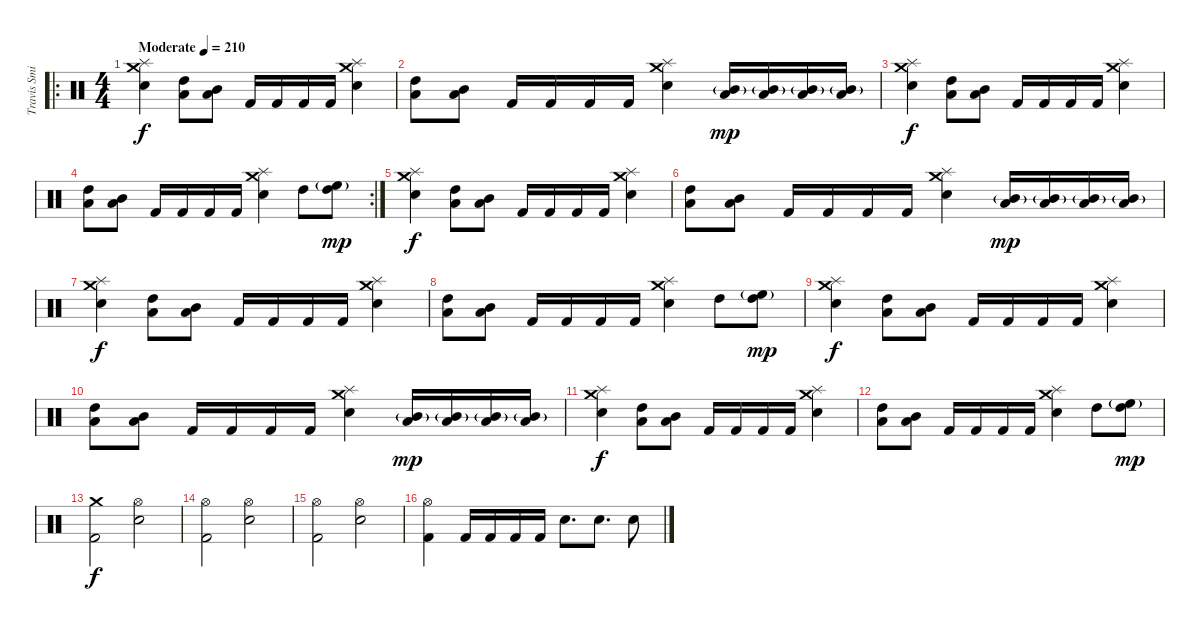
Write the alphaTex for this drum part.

\track ("Travis Smith" "Travis Smi") {instrument percussion}
\staff {score}
\articulation defaults
\ro
\ts (4 4)
\tempo (210 "Moderate")
\clef neutral
\ks c
("Crash medium (hit)" "Splash (hit)" "Electric Snare (hit)").4{dy f} ("High Tom (hit)" "Low Tom (hit)").8 ("Mid Tom (hit)" "Low Tom (hit)").8 "Kick (hit) 2".16 "Kick (hit) 2".16 "Kick (hit) 2".16 "Kick (hit) 2".16 ("Crash medium (hit)" "Splash (hit)" "Electric Snare (hit)").4 |
("High Tom (hit)" "Low Tom (hit)").8 ("Mid Tom (hit)" "Low Tom (hit)").8 "Kick (hit) 2".16 "Kick (hit) 2".16 "Kick (hit) 2".16 "Kick (hit) 2".16 ("Crash medium (hit)" "Splash (hit)" "Electric Snare (hit)").4 ("Mid Tom (hit)"{g} "Low Tom (hit)").16{dy mp} ("Mid Tom (hit)"{g} "Low Tom (hit)").16 ("Mid Tom (hit)"{g} "Low Tom (hit)").16 ("Mid Tom (hit)"{g} "Low Tom (hit)").16 |
("Crash medium (hit)" "Splash (hit)" "Electric Snare (hit)").4{dy f} ("High Tom (hit)" "Low Tom (hit)").8 ("Mid Tom (hit)" "Low Tom (hit)").8 "Kick (hit) 2".16 "Kick (hit) 2".16 "Kick (hit) 2".16 "Kick (hit) 2".16 ("Crash medium (hit)" "Splash (hit)" "Electric Snare (hit)").4 |
\rc 2
("High Tom (hit)" "Low Tom (hit)").8 ("Mid Tom (hit)" "Low Tom (hit)").8 "Kick (hit) 2".16 "Kick (hit) 2".16 "Kick (hit) 2".16 "Kick (hit) 2".16 ("Crash medium (hit)" "Splash (hit)" "Electric Snare (hit)").4 "High Tom (hit)".8 ("High Floor Tom (hit)"{g} "High Tom (hit)").8{dy mp} |
("Crash medium (hit)" "Splash (hit)" "Electric Snare (hit)").4{dy f} ("High Tom (hit)" "Low Tom (hit)").8 ("Mid Tom (hit)" "Low Tom (hit)").8 "Kick (hit) 2".16 "Kick (hit) 2".16 "Kick (hit) 2".16 "Kick (hit) 2".16 ("Crash medium (hit)" "Splash (hit)" "Electric Snare (hit)").4 |
("High Tom (hit)" "Low Tom (hit)").8 ("Mid Tom (hit)" "Low Tom (hit)").8 "Kick (hit) 2".16 "Kick (hit) 2".16 "Kick (hit) 2".16 "Kick (hit) 2".16 ("Crash medium (hit)" "Splash (hit)" "Electric Snare (hit)").4 ("Mid Tom (hit)"{g} "Low Tom (hit)").16{dy mp} ("Mid Tom (hit)"{g} "Low Tom (hit)").16 ("Mid Tom (hit)"{g} "Low Tom (hit)").16 ("Mid Tom (hit)"{g} "Low Tom (hit)").16 |
("Crash medium (hit)" "Splash (hit)" "Electric Snare (hit)").4{dy f} ("High Tom (hit)" "Low Tom (hit)").8 ("Mid Tom (hit)" "Low Tom (hit)").8 "Kick (hit) 2".16 "Kick (hit) 2".16 "Kick (hit) 2".16 "Kick (hit) 2".16 ("Crash medium (hit)" "Splash (hit)" "Electric Snare (hit)").4 |
("High Tom (hit)" "Low Tom (hit)").8 ("Mid Tom (hit)" "Low Tom (hit)").8 "Kick (hit) 2".16 "Kick (hit) 2".16 "Kick (hit) 2".16 "Kick (hit) 2".16 ("Crash medium (hit)" "Splash (hit)" "Electric Snare (hit)").4 "High Tom (hit)".8 ("High Floor Tom (hit)"{g} "High Tom (hit)").8{dy mp} |
("Crash medium (hit)" "Splash (hit)" "Electric Snare (hit)").4{dy f} ("High Tom (hit)" "Low Tom (hit)").8 ("Mid Tom (hit)" "Low Tom (hit)").8 "Kick (hit) 2".16 "Kick (hit) 2".16 "Kick (hit) 2".16 "Kick (hit) 2".16 ("Crash medium (hit)" "Splash (hit)" "Electric Snare (hit)").4 |
("High Tom (hit)" "Low Tom (hit)").8 ("Mid Tom (hit)" "Low Tom (hit)").8 "Kick (hit) 2".16 "Kick (hit) 2".16 "Kick (hit) 2".16 "Kick (hit) 2".16 ("Crash medium (hit)" "Splash (hit)" "Electric Snare (hit)").4 ("Mid Tom (hit)"{g} "Low Tom (hit)").16{dy mp} ("Mid Tom (hit)"{g} "Low Tom (hit)").16 ("Mid Tom (hit)"{g} "Low Tom (hit)").16 ("Mid Tom (hit)"{g} "Low Tom (hit)").16 |
("Crash medium (hit)" "Splash (hit)" "Electric Snare (hit)").4{dy f} ("High Tom (hit)" "Low Tom (hit)").8 ("Mid Tom (hit)" "Low Tom (hit)").8 "Kick (hit) 2".16 "Kick (hit) 2".16 "Kick (hit) 2".16 "Kick (hit) 2".16 ("Crash medium (hit)" "Splash (hit)" "Electric Snare (hit)").4 |
("High Tom (hit)" "Low Tom (hit)").8 ("Mid Tom (hit)" "Low Tom (hit)").8 "Kick (hit) 2".16 "Kick (hit) 2".16 "Kick (hit) 2".16 "Kick (hit) 2".16 ("Crash medium (hit)" "Splash (hit)" "Electric Snare (hit)").4 "High Tom (hit)".8 ("High Floor Tom (hit)"{g} "High Tom (hit)").8{dy mp} |
("Crash medium (hit)" "Kick (hit) 2").2{dy f} ("Hi-Hat (open)" "Electric Snare (hit)").2 |
("Hi-Hat (open)" "Kick (hit) 2").2 ("Hi-Hat (open)" "Electric Snare (hit)").2 |
("Hi-Hat (open)" "Kick (hit) 2").2 ("Hi-Hat (open)" "Electric Snare (hit)").2 |
("Hi-Hat (open)" "Kick (hit) 2").4 "Kick (hit) 2".16 "Kick (hit) 2".16 "Kick (hit) 2".16 "Kick (hit) 2".16 "Electric Snare (hit)".8{d} "Electric Snare (hit)".8{d} "Electric Snare (hit)".8
